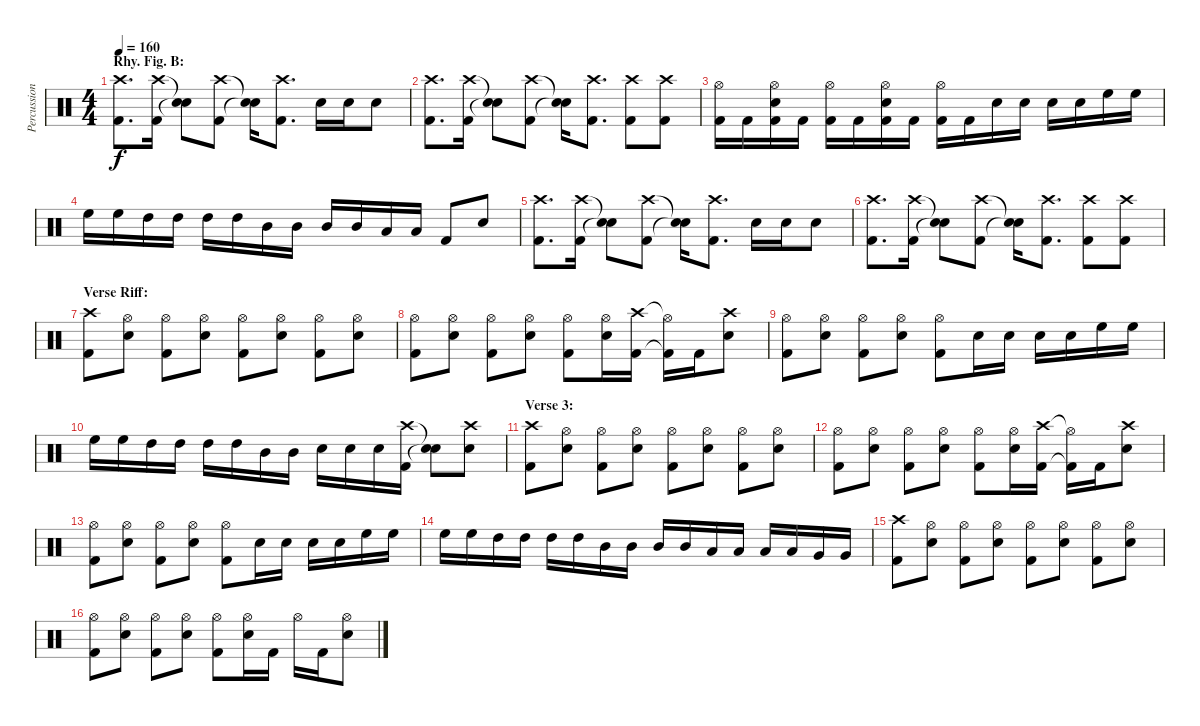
\track ("Percussion" "Percussion") {instrument percussion}
\staff {score}
\articulation defaults
\ts (4 4)
\section ("" "Rhy. Fig. B:")
\tempo 160
\clef neutral
\ks c
("Crash high (hit)" "Kick (hit) 2").8{d dy f} ("Crash high (hit)" "Kick (hit) 2").16 ("Snare (hit)"{t} "Snare (hit)"{t}).8 ("Crash high (hit)" "Kick (hit) 2").8 ("Snare (hit)"{t} "Snare (hit)"{t}).16 ("Crash high (hit)" "Kick (hit) 2").8{d} "Snare (hit) 2".16 "Snare (hit) 2".16 "Snare (hit) 2".8 |
("Crash high (hit)" "Kick (hit) 2").8{d} ("Crash high (hit)" "Kick (hit) 2").16 ("Snare (hit)"{t} "Snare (hit)"{t}).8 ("Crash high (hit)" "Kick (hit) 2").8 ("Snare (hit)"{t} "Snare (hit)"{t}).16 ("Crash high (hit)" "Kick (hit) 2").8{d} ("Crash high (hit)" "Kick (hit) 2").8 ("Crash high (hit)" "Kick (hit) 2").8 |
("Hi-Hat (open)" "Kick (hit) 2").16 "Kick (hit) 2".16 ("Hi-Hat (open)" "Snare (hit) 2" "Kick (hit) 2").16 "Kick (hit) 2".16 ("Hi-Hat (open)" "Kick (hit) 2").16 "Kick (hit) 2".16 ("Hi-Hat (open)" "Snare (hit) 2" "Kick (hit) 2").16 "Kick (hit) 2".16 ("Hi-Hat (open)" "Kick (hit) 2").16 "Kick (hit) 2".16 "Snare (hit) 2".16 "Snare (hit) 2".16 "Snare (hit) 2".16 "Snare (hit) 2".16 "High Floor Tom (hit)".16 "High Floor Tom (hit)".16 |
"High Floor Tom (hit)".16 "High Floor Tom (hit)".16 "High Tom (hit)".16 "High Tom (hit)".16 "High Tom (hit)".16 "High Tom (hit)".16 "Mid Tom (hit)".16 "Mid Tom (hit)".16 "Mid Tom (hit)".16 "Mid Tom (hit)".16 "Low Tom (hit)".16 "Low Tom (hit)".16 "Kick (hit) 2".8 "Snare (hit) 2".8 |
("Crash high (hit)" "Kick (hit) 2").8{d} ("Crash high (hit)" "Kick (hit) 2").16 ("Snare (hit)"{t} "Snare (hit)"{t}).8 ("Crash high (hit)" "Kick (hit) 2").8 ("Snare (hit)"{t} "Snare (hit)"{t}).16 ("Crash high (hit)" "Kick (hit) 2").8{d} "Snare (hit) 2".16 "Snare (hit) 2".16 "Snare (hit) 2".8 |
("Crash high (hit)" "Kick (hit) 2").8{d} ("Crash high (hit)" "Kick (hit) 2").16 ("Snare (hit)"{t} "Snare (hit)"{t}).8 ("Crash high (hit)" "Kick (hit) 2").8 ("Snare (hit)"{t} "Snare (hit)"{t}).16 ("Crash high (hit)" "Kick (hit) 2").8{d} ("Crash high (hit)" "Kick (hit) 2").8 ("Crash high (hit)" "Kick (hit) 2").8 |
\section ("" "Verse Riff:")
("Crash high (hit)" "Kick (hit) 2").8 ("Hi-Hat (open)" "Snare (hit) 2").8 ("Hi-Hat (open)" "Kick (hit) 2").8 ("Hi-Hat (open)" "Snare (hit) 2").8 ("Hi-Hat (open)" "Kick (hit) 2").8 ("Hi-Hat (open)" "Snare (hit) 2").8 ("Hi-Hat (open)" "Kick (hit) 2").8 ("Hi-Hat (open)" "Snare (hit) 2").8 |
("Hi-Hat (open)" "Kick (hit) 2").8 ("Hi-Hat (open)" "Snare (hit) 2").8 ("Hi-Hat (open)" "Kick (hit) 2").8 ("Hi-Hat (open)" "Snare (hit) 2").8 ("Hi-Hat (open)" "Kick (hit) 2").8 ("Hi-Hat (open)" "Snare (hit) 2").16 ("Crash high (hit)" "Kick (hit) 2").16 ("Hi-Hat (open)"{t} "Kick (hit) 2"{t}).16 "Kick (hit) 2".16 ("Crash high (hit)" "Snare (hit) 2").8 |
("Hi-Hat (open)" "Kick (hit) 2").8 ("Hi-Hat (open)" "Snare (hit) 2").8 ("Hi-Hat (open)" "Kick (hit) 2").8 ("Hi-Hat (open)" "Snare (hit) 2").8 ("Hi-Hat (open)" "Kick (hit) 2").8 "Snare (hit) 2".16 "Snare (hit) 2".16 "Snare (hit) 2".16 "Snare (hit) 2".16 "High Floor Tom (hit)".16 "High Floor Tom (hit)".16 |
"High Floor Tom (hit)".16 "High Floor Tom (hit)".16 "High Tom (hit)".16 "High Tom (hit)".16 "High Tom (hit)".16 "High Tom (hit)".16 "Mid Tom (hit)".16 "Mid Tom (hit)".16 "Snare (hit) 2".16 "Snare (hit) 2".16 "Snare (hit) 2".16 ("Crash high (hit)" "Kick (hit) 2").16 ("Snare (hit)"{t} "Snare (hit)"{t}).8 ("Crash high (hit)" "Snare (hit) 2").8 |
\section ("" "Verse 3:")
("Crash high (hit)" "Kick (hit) 2").8 ("Hi-Hat (open)" "Snare (hit) 2").8 ("Hi-Hat (open)" "Kick (hit) 2").8 ("Hi-Hat (open)" "Snare (hit) 2").8 ("Hi-Hat (open)" "Kick (hit) 2").8 ("Hi-Hat (open)" "Snare (hit) 2").8 ("Hi-Hat (open)" "Kick (hit) 2").8 ("Hi-Hat (open)" "Snare (hit) 2").8 |
("Hi-Hat (open)" "Kick (hit) 2").8 ("Hi-Hat (open)" "Snare (hit) 2").8 ("Hi-Hat (open)" "Kick (hit) 2").8 ("Hi-Hat (open)" "Snare (hit) 2").8 ("Hi-Hat (open)" "Kick (hit) 2").8 ("Hi-Hat (open)" "Snare (hit) 2").16 ("Crash high (hit)" "Kick (hit) 2").16 ("Hi-Hat (open)"{t} "Kick (hit) 2"{t}).16 "Kick (hit) 2".16 ("Crash high (hit)" "Snare (hit) 2").8 |
("Hi-Hat (open)" "Kick (hit) 2").8 ("Hi-Hat (open)" "Snare (hit) 2").8 ("Hi-Hat (open)" "Kick (hit) 2").8 ("Hi-Hat (open)" "Snare (hit) 2").8 ("Hi-Hat (open)" "Kick (hit) 2").8 "Snare (hit) 2".16 "Snare (hit) 2".16 "Snare (hit) 2".16 "Snare (hit) 2".16 "High Floor Tom (hit)".16 "High Floor Tom (hit)".16 |
"High Floor Tom (hit)".16 "High Floor Tom (hit)".16 "High Tom (hit)".16 "High Tom (hit)".16 "High Tom (hit)".16 "High Tom (hit)".16 "Mid Tom (hit)".16 "Mid Tom (hit)".16 "Mid Tom (hit)".16 "Mid Tom (hit)".16 "Low Tom (hit)".16 "Low Tom (hit)".16 "Low Tom (hit)".16 "Low Tom (hit)".16 "Very Low Tom (hit)".16 "Very Low Tom (hit)".16 |
("Crash high (hit)" "Kick (hit) 2").8 ("Hi-Hat (open)" "Snare (hit) 2").8 ("Hi-Hat (open)" "Kick (hit) 2").8 ("Hi-Hat (open)" "Snare (hit) 2").8 ("Hi-Hat (open)" "Kick (hit) 2").8 ("Hi-Hat (open)" "Snare (hit) 2").8 ("Hi-Hat (open)" "Kick (hit) 2").8 ("Hi-Hat (open)" "Snare (hit) 2").8 |
("Hi-Hat (open)" "Kick (hit) 2").8 ("Hi-Hat (open)" "Snare (hit) 2").8 ("Hi-Hat (open)" "Kick (hit) 2").8 ("Hi-Hat (open)" "Snare (hit) 2").8 ("Hi-Hat (open)" "Kick (hit) 2").8 ("Hi-Hat (open)" "Snare (hit) 2").16 "Kick (hit) 2".16 "Hi-Hat (open)".16 "Kick (hit) 2".16 ("Hi-Hat (open)" "Snare (hit) 2").8
